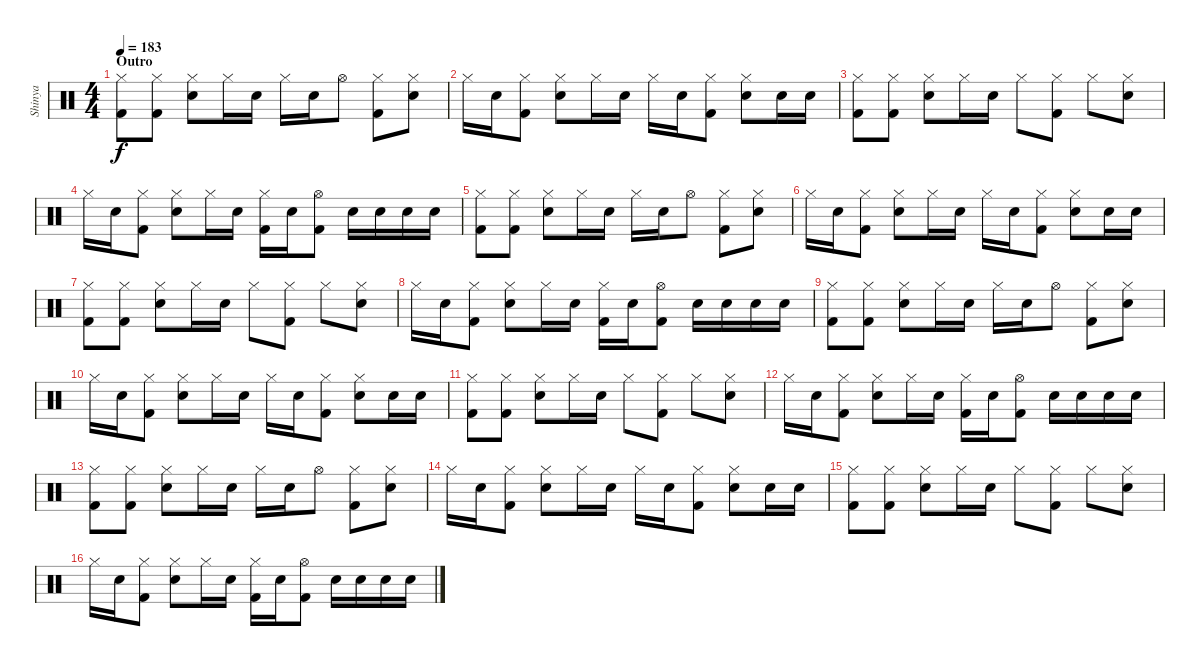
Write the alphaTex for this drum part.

\track ("Shinya" "Shinya") {instrument percussion}
\staff {score}
\articulation defaults
\ts (4 4)
\section ("" "Outro")
\tempo 183
\clef neutral
\ks c
("Hi-Hat (closed)" "Kick (hit) 2").8{dy f} ("Hi-Hat (closed)" "Kick (hit) 2").8 ("Hi-Hat (closed)" "Snare (hit) 2").8 "Hi-Hat (closed)".16 "Snare (hit) 2".16 "Hi-Hat (closed)".16 "Snare (hit) 2".16 "Hi-Hat (open)".8 ("Hi-Hat (closed)" "Kick (hit) 2").8 ("Hi-Hat (closed)" "Snare (hit) 2").8 |
"Hi-Hat (closed)".16 "Snare (hit) 2".16 ("Hi-Hat (closed)" "Kick (hit) 2").8 ("Hi-Hat (closed)" "Snare (hit) 2").8 "Hi-Hat (closed)".16 "Snare (hit) 2".16 "Hi-Hat (closed)".16 "Snare (hit) 2".16 ("Hi-Hat (closed)" "Kick (hit) 2").8 ("Hi-Hat (closed)" "Snare (hit) 2").8 "Snare (hit) 2".16 "Snare (hit) 2".16 |
("Hi-Hat (closed)" "Kick (hit) 2").8 ("Hi-Hat (closed)" "Kick (hit) 2").8 ("Hi-Hat (closed)" "Snare (hit) 2").8 "Hi-Hat (closed)".16 "Snare (hit) 2".16 "Hi-Hat (closed)".8 ("Hi-Hat (closed)" "Kick (hit) 2").8 "Hi-Hat (closed)".8 ("Hi-Hat (closed)" "Snare (hit) 2").8 |
"Hi-Hat (closed)".16 "Snare (hit) 2".16 ("Hi-Hat (closed)" "Kick (hit) 2").8 ("Hi-Hat (closed)" "Snare (hit) 2").8 "Hi-Hat (closed)".16 "Snare (hit) 2".16 ("Hi-Hat (closed)" "Kick (hit) 2").16 "Snare (hit) 2".16 ("Hi-Hat (open)" "Kick (hit) 2").8 "Snare (hit) 2".16 "Snare (hit) 2".16 "Snare (hit) 2".16 "Snare (hit) 2".16 |
("Hi-Hat (closed)" "Kick (hit) 2").8 ("Hi-Hat (closed)" "Kick (hit) 2").8 ("Hi-Hat (closed)" "Snare (hit) 2").8 "Hi-Hat (closed)".16 "Snare (hit) 2".16 "Hi-Hat (closed)".16 "Snare (hit) 2".16 "Hi-Hat (open)".8 ("Hi-Hat (closed)" "Kick (hit) 2").8 ("Hi-Hat (closed)" "Snare (hit) 2").8 |
"Hi-Hat (closed)".16 "Snare (hit) 2".16 ("Hi-Hat (closed)" "Kick (hit) 2").8 ("Hi-Hat (closed)" "Snare (hit) 2").8 "Hi-Hat (closed)".16 "Snare (hit) 2".16 "Hi-Hat (closed)".16 "Snare (hit) 2".16 ("Hi-Hat (closed)" "Kick (hit) 2").8 ("Hi-Hat (closed)" "Snare (hit) 2").8 "Snare (hit) 2".16 "Snare (hit) 2".16 |
("Hi-Hat (closed)" "Kick (hit) 2").8 ("Hi-Hat (closed)" "Kick (hit) 2").8 ("Hi-Hat (closed)" "Snare (hit) 2").8 "Hi-Hat (closed)".16 "Snare (hit) 2".16 "Hi-Hat (closed)".8 ("Hi-Hat (closed)" "Kick (hit) 2").8 "Hi-Hat (closed)".8 ("Hi-Hat (closed)" "Snare (hit) 2").8 |
"Hi-Hat (closed)".16 "Snare (hit) 2".16 ("Hi-Hat (closed)" "Kick (hit) 2").8 ("Hi-Hat (closed)" "Snare (hit) 2").8 "Hi-Hat (closed)".16 "Snare (hit) 2".16 ("Hi-Hat (closed)" "Kick (hit) 2").16 "Snare (hit) 2".16 ("Hi-Hat (open)" "Kick (hit) 2").8 "Snare (hit) 2".16 "Snare (hit) 2".16 "Snare (hit) 2".16 "Snare (hit) 2".16 |
("Hi-Hat (closed)" "Kick (hit) 2").8 ("Hi-Hat (closed)" "Kick (hit) 2").8 ("Hi-Hat (closed)" "Snare (hit) 2").8 "Hi-Hat (closed)".16 "Snare (hit) 2".16 "Hi-Hat (closed)".16 "Snare (hit) 2".16 "Hi-Hat (open)".8 ("Hi-Hat (closed)" "Kick (hit) 2").8 ("Hi-Hat (closed)" "Snare (hit) 2").8 |
"Hi-Hat (closed)".16 "Snare (hit) 2".16 ("Hi-Hat (closed)" "Kick (hit) 2").8 ("Hi-Hat (closed)" "Snare (hit) 2").8 "Hi-Hat (closed)".16 "Snare (hit) 2".16 "Hi-Hat (closed)".16 "Snare (hit) 2".16 ("Hi-Hat (closed)" "Kick (hit) 2").8 ("Hi-Hat (closed)" "Snare (hit) 2").8 "Snare (hit) 2".16 "Snare (hit) 2".16 |
("Hi-Hat (closed)" "Kick (hit) 2").8 ("Hi-Hat (closed)" "Kick (hit) 2").8 ("Hi-Hat (closed)" "Snare (hit) 2").8 "Hi-Hat (closed)".16 "Snare (hit) 2".16 "Hi-Hat (closed)".8 ("Hi-Hat (closed)" "Kick (hit) 2").8 "Hi-Hat (closed)".8 ("Hi-Hat (closed)" "Snare (hit) 2").8 |
"Hi-Hat (closed)".16 "Snare (hit) 2".16 ("Hi-Hat (closed)" "Kick (hit) 2").8 ("Hi-Hat (closed)" "Snare (hit) 2").8 "Hi-Hat (closed)".16 "Snare (hit) 2".16 ("Hi-Hat (closed)" "Kick (hit) 2").16 "Snare (hit) 2".16 ("Hi-Hat (open)" "Kick (hit) 2").8 "Snare (hit) 2".16 "Snare (hit) 2".16 "Snare (hit) 2".16 "Snare (hit) 2".16 |
("Hi-Hat (closed)" "Kick (hit) 2").8 ("Hi-Hat (closed)" "Kick (hit) 2").8 ("Hi-Hat (closed)" "Snare (hit) 2").8 "Hi-Hat (closed)".16 "Snare (hit) 2".16 "Hi-Hat (closed)".16 "Snare (hit) 2".16 "Hi-Hat (open)".8 ("Hi-Hat (closed)" "Kick (hit) 2").8 ("Hi-Hat (closed)" "Snare (hit) 2").8 |
"Hi-Hat (closed)".16 "Snare (hit) 2".16 ("Hi-Hat (closed)" "Kick (hit) 2").8 ("Hi-Hat (closed)" "Snare (hit) 2").8 "Hi-Hat (closed)".16 "Snare (hit) 2".16 "Hi-Hat (closed)".16 "Snare (hit) 2".16 ("Hi-Hat (closed)" "Kick (hit) 2").8 ("Hi-Hat (closed)" "Snare (hit) 2").8 "Snare (hit) 2".16 "Snare (hit) 2".16 |
("Hi-Hat (closed)" "Kick (hit) 2").8 ("Hi-Hat (closed)" "Kick (hit) 2").8 ("Hi-Hat (closed)" "Snare (hit) 2").8 "Hi-Hat (closed)".16 "Snare (hit) 2".16 "Hi-Hat (closed)".8 ("Hi-Hat (closed)" "Kick (hit) 2").8 "Hi-Hat (closed)".8 ("Hi-Hat (closed)" "Snare (hit) 2").8 |
"Hi-Hat (closed)".16 "Snare (hit) 2".16 ("Hi-Hat (closed)" "Kick (hit) 2").8 ("Hi-Hat (closed)" "Snare (hit) 2").8 "Hi-Hat (closed)".16 "Snare (hit) 2".16 ("Hi-Hat (closed)" "Kick (hit) 2").16 "Snare (hit) 2".16 ("Hi-Hat (open)" "Kick (hit) 2").8 "Snare (hit) 2".16 "Snare (hit) 2".16 "Snare (hit) 2".16 "Snare (hit) 2".16
